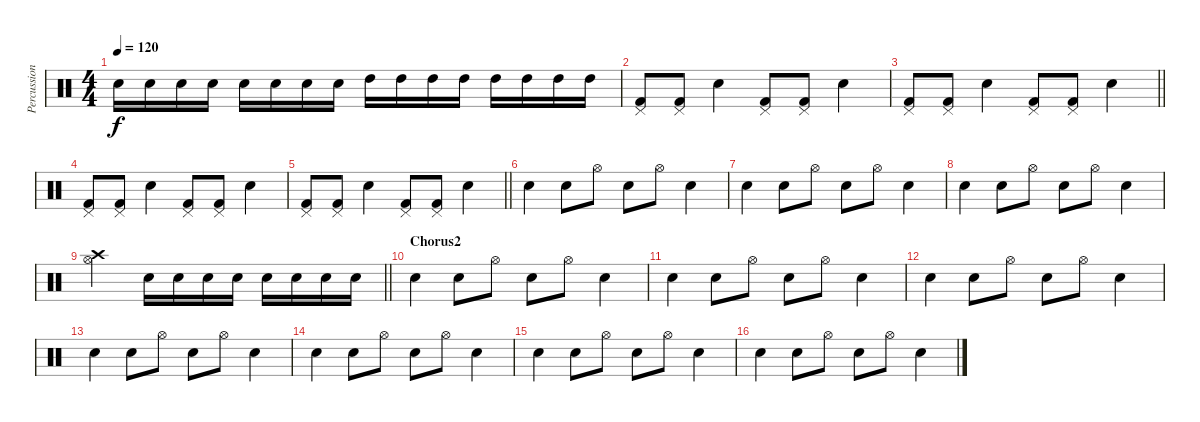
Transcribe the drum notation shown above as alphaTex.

\track ("Percussion" "Percussion") {instrument percussion}
\staff {score}
\articulation defaults
\ts (4 4)
\tempo 120
\clef neutral
\ks c "Electric Snare (hit)".16{dy f} "Electric Snare (hit)".16 "Electric Snare (hit)".16 "Electric Snare (hit)".16 "Electric Snare (hit)".16 "Electric Snare (hit)".16 "Electric Snare (hit)".16 "Electric Snare (hit)".16 "High Tom (hit)".16 "High Tom (hit)".16 "High Tom (hit)".16 "High Tom (hit)".16 "High Tom (hit)".16 "High Tom (hit)".16 "High Tom (hit)".16 "High Tom (hit)".16
|
("Kick (hit) 2" "Pedal Hi-Hat (hit)").8 ("Kick (hit) 2" "Pedal Hi-Hat (hit)").8 "Electric Snare (hit)".4 ("Kick (hit) 2" "Pedal Hi-Hat (hit)").8 ("Kick (hit) 2" "Pedal Hi-Hat (hit)").8 "Electric Snare (hit)".4 |
\barLineRight lightlight
("Kick (hit) 2" "Pedal Hi-Hat (hit)").8 ("Kick (hit) 2" "Pedal Hi-Hat (hit)").8 "Electric Snare (hit)".4 ("Kick (hit) 2" "Pedal Hi-Hat (hit)").8 ("Kick (hit) 2" "Pedal Hi-Hat (hit)").8 "Electric Snare (hit)".4 |
("Kick (hit) 2" "Pedal Hi-Hat (hit)").8 ("Kick (hit) 2" "Pedal Hi-Hat (hit)").8 "Electric Snare (hit)".4 ("Kick (hit) 2" "Pedal Hi-Hat (hit)").8 ("Kick (hit) 2" "Pedal Hi-Hat (hit)").8 "Electric Snare (hit)".4 |
\barLineRight lightlight
("Kick (hit) 2" "Pedal Hi-Hat (hit)").8 ("Kick (hit) 2" "Pedal Hi-Hat (hit)").8 "Electric Snare (hit)".4 ("Kick (hit) 2" "Pedal Hi-Hat (hit)").8 ("Kick (hit) 2" "Pedal Hi-Hat (hit)").8 "Electric Snare (hit)".4 |
"Electric Snare (hit)".4 "Electric Snare (hit)".8 "Hi-Hat (open)".8 "Electric Snare (hit)".8 "Hi-Hat (open)".8 "Electric Snare (hit)".4 |
"Electric Snare (hit)".4 "Electric Snare (hit)".8 "Hi-Hat (open)".8 "Electric Snare (hit)".8 "Hi-Hat (open)".8 "Electric Snare (hit)".4 |
"Electric Snare (hit)".4 "Electric Snare (hit)".8 "Hi-Hat (open)".8 "Electric Snare (hit)".8 "Hi-Hat (open)".8 "Electric Snare (hit)".4 |
\barLineRight lightlight
("Crash high (hit)" "Hi-Hat (open)").2 "Electric Snare (hit)".16 "Electric Snare (hit)".16 "Electric Snare (hit)".16 "Electric Snare (hit)".16 "Electric Snare (hit)".16 "Electric Snare (hit)".16 "Electric Snare (hit)".16 "Electric Snare (hit)".16 |
\section ("" "Chorus2")
"Electric Snare (hit)".4 "Electric Snare (hit)".8 "Hi-Hat (open)".8 "Electric Snare (hit)".8 "Hi-Hat (open)".8 "Electric Snare (hit)".4 |
"Electric Snare (hit)".4 "Electric Snare (hit)".8 "Hi-Hat (open)".8 "Electric Snare (hit)".8 "Hi-Hat (open)".8 "Electric Snare (hit)".4 |
"Electric Snare (hit)".4 "Electric Snare (hit)".8 "Hi-Hat (open)".8 "Electric Snare (hit)".8 "Hi-Hat (open)".8 "Electric Snare (hit)".4 |
"Electric Snare (hit)".4 "Electric Snare (hit)".8 "Hi-Hat (open)".8 "Electric Snare (hit)".8 "Hi-Hat (open)".8 "Electric Snare (hit)".4 |
"Electric Snare (hit)".4 "Electric Snare (hit)".8 "Hi-Hat (open)".8 "Electric Snare (hit)".8 "Hi-Hat (open)".8 "Electric Snare (hit)".4 |
"Electric Snare (hit)".4 "Electric Snare (hit)".8 "Hi-Hat (open)".8 "Electric Snare (hit)".8 "Hi-Hat (open)".8 "Electric Snare (hit)".4 |
"Electric Snare (hit)".4 "Electric Snare (hit)".8 "Hi-Hat (open)".8 "Electric Snare (hit)".8 "Hi-Hat (open)".8 "Electric Snare (hit)".4
